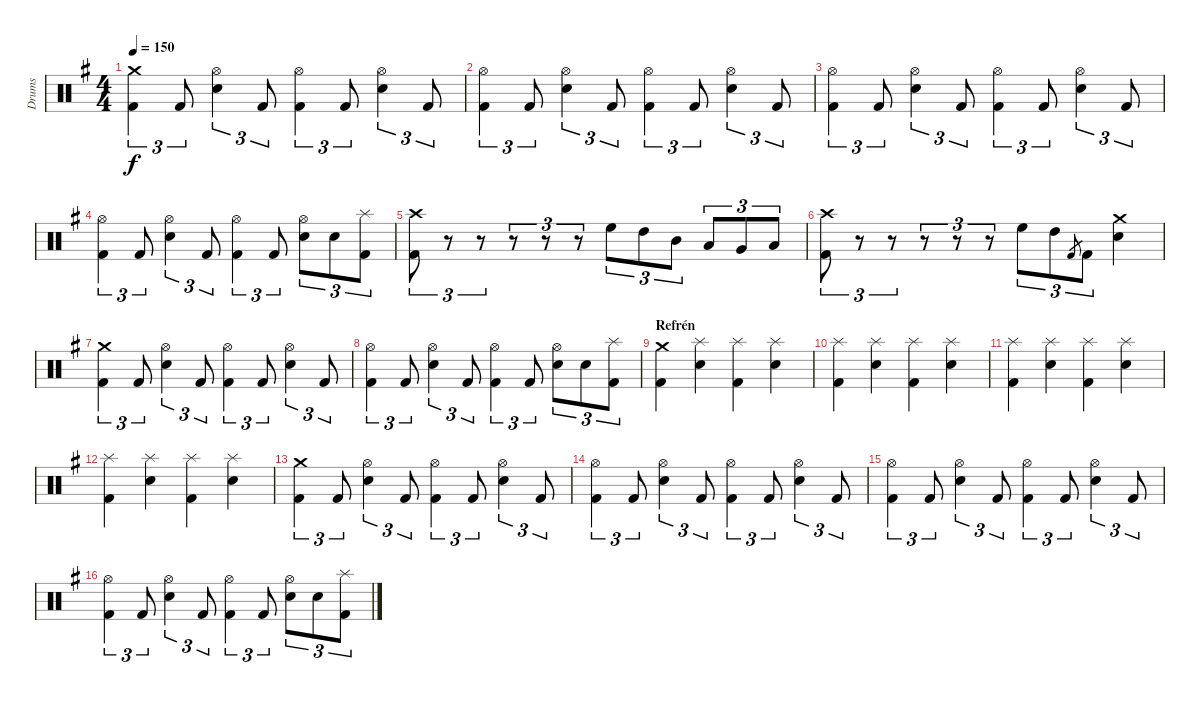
\track ("Drums" "Drums") {instrument percussion}
\staff {score}
\articulation defaults
\ts (4 4)
\tempo 150
\clef neutral
\ks eminor
("Crash medium (hit)" "Kick (hit) 2").4{tu (3 2) dy f} "Kick (hit) 2".8{tu (3 2)} ("Hi-Hat (open)" "Snare (hit) 2").4{tu (3 2)} "Kick (hit) 2".8{tu (3 2)} ("Hi-Hat (open)" "Kick (hit) 2").4{tu (3 2)} "Kick (hit) 2".8{tu (3 2)} ("Hi-Hat (open)" "Snare (hit) 2").4{tu (3 2)} "Kick (hit) 2".8{tu (3 2)} |
("Hi-Hat (open)" "Kick (hit) 2").4{tu (3 2)} "Kick (hit) 2".8{tu (3 2)} ("Hi-Hat (open)" "Snare (hit) 2").4{tu (3 2)} "Kick (hit) 2".8{tu (3 2)} ("Hi-Hat (open)" "Kick (hit) 2").4{tu (3 2)} "Kick (hit) 2".8{tu (3 2)} ("Hi-Hat (open)" "Snare (hit) 2").4{tu (3 2)} "Kick (hit) 2".8{tu (3 2)} |
("Hi-Hat (open)" "Kick (hit) 2").4{tu (3 2)} "Kick (hit) 2".8{tu (3 2)} ("Hi-Hat (open)" "Snare (hit) 2").4{tu (3 2)} "Kick (hit) 2".8{tu (3 2)} ("Hi-Hat (open)" "Kick (hit) 2").4{tu (3 2)} "Kick (hit) 2".8{tu (3 2)} ("Hi-Hat (open)" "Snare (hit) 2").4{tu (3 2)} "Kick (hit) 2".8{tu (3 2)} |
("Hi-Hat (open)" "Kick (hit) 2").4{tu (3 2)} "Kick (hit) 2".8{tu (3 2)} ("Hi-Hat (open)" "Snare (hit) 2").4{tu (3 2)} "Kick (hit) 2".8{tu (3 2)} ("Hi-Hat (open)" "Kick (hit) 2").4{tu (3 2)} "Kick (hit) 2".8{tu (3 2)} ("Hi-Hat (open)" "Snare (hit) 2").8{tu (3 2)} "Snare (hit) 2".8{tu (3 2)} ("Splash (hit)" "Kick (hit) 2").8{tu (3 2)} |
("Crash high (hit)" "Kick (hit) 2").8{tu (3 2)} r.8{tu (3 2)} r.8{tu (3 2)} r.8{tu (3 2)} r.8{tu (3 2)} r.8{tu (3 2)} "High Floor Tom (hit)".8{tu (3 2)} "High Tom (hit)".8{tu (3 2)} "Mid Tom (hit)".8{tu (3 2)} "Low Tom (hit)".8{tu (3 2)} "Very Low Tom (hit)".8{tu (3 2)} "Low Floor Tom (hit)".8{tu (3 2)} |
("Crash high (hit)" "Kick (hit) 2").8{tu (3 2)} r.8{tu (3 2)} r.8{tu (3 2)} r.8{tu (3 2)} r.8{tu (3 2)} r.8{tu (3 2)} "High Floor Tom (hit)".8{tu (3 2)} "High Tom (hit)".8{tu (3 2)} "Kick (hit) 2".8{gr} "Kick (hit) 2".8{tu (3 2)} ("Crash medium (hit)" "Snare (hit) 2").4 |
("Crash medium (hit)" "Kick (hit) 2").4{tu (3 2)} "Kick (hit) 2".8{tu (3 2)} ("Hi-Hat (open)" "Snare (hit) 2").4{tu (3 2)} "Kick (hit) 2".8{tu (3 2)} ("Hi-Hat (open)" "Kick (hit) 2").4{tu (3 2)} "Kick (hit) 2".8{tu (3 2)} ("Hi-Hat (open)" "Snare (hit) 2").4{tu (3 2)} "Kick (hit) 2".8{tu (3 2)} |
("Hi-Hat (open)" "Kick (hit) 2").4{tu (3 2)} "Kick (hit) 2".8{tu (3 2)} ("Hi-Hat (open)" "Snare (hit) 2").4{tu (3 2)} "Kick (hit) 2".8{tu (3 2)} ("Hi-Hat (open)" "Kick (hit) 2").4{tu (3 2)} "Kick (hit) 2".8{tu (3 2)} ("Hi-Hat (open)" "Snare (hit) 2").8{tu (3 2)} "Snare (hit) 2".8{tu (3 2)} ("Splash (hit)" "Kick (hit) 2").8{tu (3 2)} |
\section ("" "Refrén")
("Crash medium (hit)" "Kick (hit) 2").4 ("Splash (hit)" "Snare (hit) 2").4 ("Splash (hit)" "Kick (hit) 2").4 ("Splash (hit)" "Snare (hit) 2").4 |
("Splash (hit)" "Kick (hit) 2").4 ("Splash (hit)" "Snare (hit) 2").4 ("Splash (hit)" "Kick (hit) 2").4 ("Splash (hit)" "Snare (hit) 2").4 |
("Splash (hit)" "Kick (hit) 2").4 ("Splash (hit)" "Snare (hit) 2").4 ("Splash (hit)" "Kick (hit) 2").4 ("Splash (hit)" "Snare (hit) 2").4 |
("Splash (hit)" "Kick (hit) 2").4 ("Splash (hit)" "Snare (hit) 2").4 ("Splash (hit)" "Kick (hit) 2").4 ("Splash (hit)" "Snare (hit) 2").4 |
("Crash medium (hit)" "Kick (hit) 2").4{tu (3 2)} "Kick (hit) 2".8{tu (3 2)} ("Hi-Hat (open)" "Snare (hit) 2").4{tu (3 2)} "Kick (hit) 2".8{tu (3 2)} ("Hi-Hat (open)" "Kick (hit) 2").4{tu (3 2)} "Kick (hit) 2".8{tu (3 2)} ("Hi-Hat (open)" "Snare (hit) 2").4{tu (3 2)} "Kick (hit) 2".8{tu (3 2)} |
("Hi-Hat (open)" "Kick (hit) 2").4{tu (3 2)} "Kick (hit) 2".8{tu (3 2)} ("Hi-Hat (open)" "Snare (hit) 2").4{tu (3 2)} "Kick (hit) 2".8{tu (3 2)} ("Hi-Hat (open)" "Kick (hit) 2").4{tu (3 2)} "Kick (hit) 2".8{tu (3 2)} ("Hi-Hat (open)" "Snare (hit) 2").4{tu (3 2)} "Kick (hit) 2".8{tu (3 2)} |
("Hi-Hat (open)" "Kick (hit) 2").4{tu (3 2)} "Kick (hit) 2".8{tu (3 2)} ("Hi-Hat (open)" "Snare (hit) 2").4{tu (3 2)} "Kick (hit) 2".8{tu (3 2)} ("Hi-Hat (open)" "Kick (hit) 2").4{tu (3 2)} "Kick (hit) 2".8{tu (3 2)} ("Hi-Hat (open)" "Snare (hit) 2").4{tu (3 2)} "Kick (hit) 2".8{tu (3 2)} |
("Hi-Hat (open)" "Kick (hit) 2").4{tu (3 2)} "Kick (hit) 2".8{tu (3 2)} ("Hi-Hat (open)" "Snare (hit) 2").4{tu (3 2)} "Kick (hit) 2".8{tu (3 2)} ("Hi-Hat (open)" "Kick (hit) 2").4{tu (3 2)} "Kick (hit) 2".8{tu (3 2)} ("Hi-Hat (open)" "Snare (hit) 2").8{tu (3 2)} "Snare (hit) 2".8{tu (3 2)} ("Splash (hit)" "Kick (hit) 2").8{tu (3 2)}
